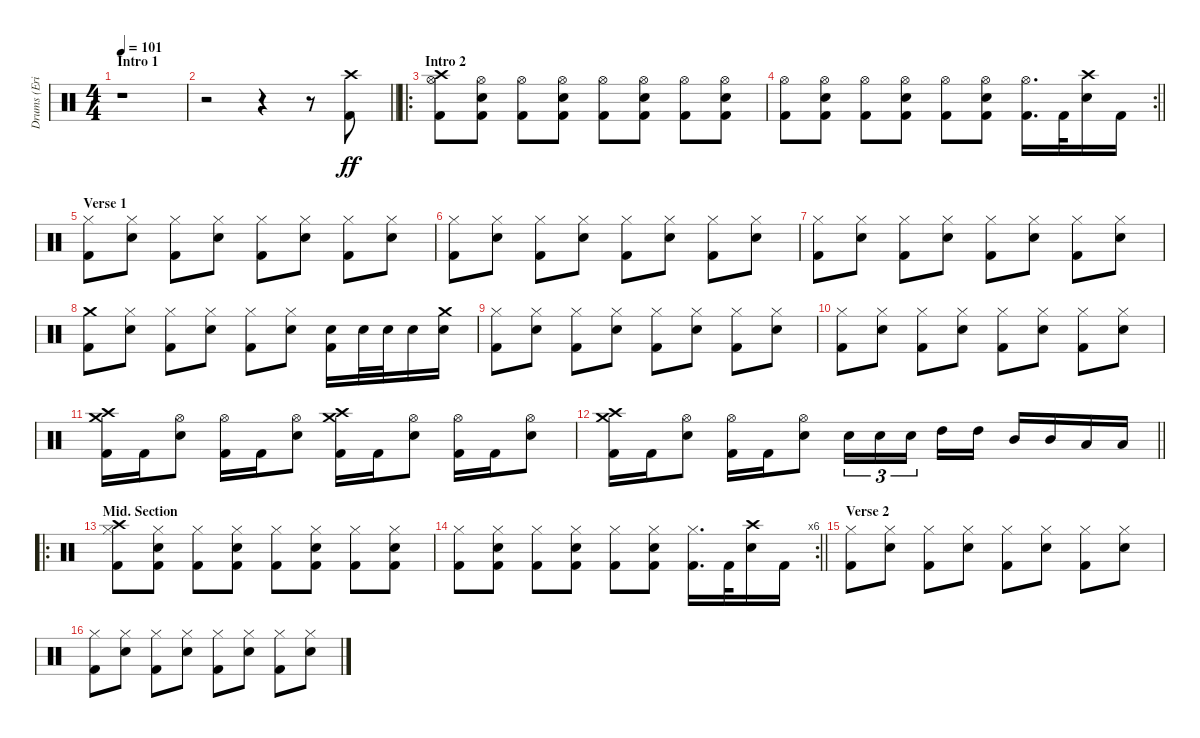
\track ("Drums (Erik Sandin)" "Drums (Eri") {instrument percussion}
\staff {score}
\articulation defaults
\ts (4 4)
\section ("" "Intro 1")
\tempo 101
\clef neutral
\ks c
r.1{dy ff} |
\barLineRight lightlight
r.2 r.4 r.8 ("Crash high (hit)" "Kick (hit) 2").8 |
\ro
\section ("" "Intro 2")
("Hi-Hat (open)" "Crash high (hit)" "Kick (hit) 2").8 ("Hi-Hat (open)" "Electric Snare (hit)" "Kick (hit) 2").8 ("Hi-Hat (open)" "Kick (hit) 2").8 ("Hi-Hat (open)" "Electric Snare (hit)" "Kick (hit) 2").8 ("Hi-Hat (open)" "Kick (hit) 2").8 ("Hi-Hat (open)" "Electric Snare (hit)" "Kick (hit) 2").8 ("Hi-Hat (open)" "Kick (hit) 2").8 ("Hi-Hat (open)" "Electric Snare (hit)" "Kick (hit) 2").8 |
\rc 2
\barLineRight lightlight
("Hi-Hat (open)" "Kick (hit) 2").8 ("Hi-Hat (open)" "Electric Snare (hit)" "Kick (hit) 2").8 ("Hi-Hat (open)" "Kick (hit) 2").8 ("Hi-Hat (open)" "Electric Snare (hit)" "Kick (hit) 2").8 ("Hi-Hat (open)" "Kick (hit) 2").8 ("Hi-Hat (open)" "Electric Snare (hit)" "Kick (hit) 2").8 ("Hi-Hat (open)" "Kick (hit) 2").16{d} "Kick (hit) 2".32 ("Crash high (hit)" "Electric Snare (hit)").16 "Kick (hit) 2".16 |
\section ("" "Verse 1")
("Hi-Hat (closed)" "Kick (hit) 2").8 ("Hi-Hat (closed)" "Electric Snare (hit)").8 ("Hi-Hat (closed)" "Kick (hit) 2").8 ("Hi-Hat (closed)" "Electric Snare (hit)").8 ("Hi-Hat (closed)" "Kick (hit) 2").8 ("Hi-Hat (closed)" "Electric Snare (hit)").8 ("Hi-Hat (closed)" "Kick (hit) 2").8 ("Hi-Hat (closed)" "Electric Snare (hit)").8 |
("Hi-Hat (closed)" "Kick (hit) 2").8 ("Hi-Hat (closed)" "Electric Snare (hit)").8 ("Hi-Hat (closed)" "Kick (hit) 2").8 ("Hi-Hat (closed)" "Electric Snare (hit)").8 ("Hi-Hat (closed)" "Kick (hit) 2").8 ("Hi-Hat (closed)" "Electric Snare (hit)").8 ("Hi-Hat (closed)" "Kick (hit) 2").8 ("Hi-Hat (closed)" "Electric Snare (hit)").8 |
("Hi-Hat (closed)" "Kick (hit) 2").8 ("Hi-Hat (closed)" "Electric Snare (hit)").8 ("Hi-Hat (closed)" "Kick (hit) 2").8 ("Hi-Hat (closed)" "Electric Snare (hit)").8 ("Hi-Hat (closed)" "Kick (hit) 2").8 ("Hi-Hat (closed)" "Electric Snare (hit)").8 ("Hi-Hat (closed)" "Kick (hit) 2").8 ("Hi-Hat (closed)" "Electric Snare (hit)").8 |
("Crash medium (hit)" "Kick (hit) 2").8 ("Hi-Hat (closed)" "Electric Snare (hit)").8 ("Hi-Hat (closed)" "Kick (hit) 2").8 ("Hi-Hat (closed)" "Electric Snare (hit)").8 ("Hi-Hat (closed)" "Kick (hit) 2").8 ("Hi-Hat (closed)" "Electric Snare (hit)").8 ("Electric Snare (hit)" "Kick (hit) 2").16 "Electric Snare (hit)".32 "Electric Snare (hit)".32 "Electric Snare (hit)".16 ("Crash medium (hit)" "Electric Snare (hit)").16 |
("Hi-Hat (closed)" "Kick (hit) 2").8 ("Hi-Hat (closed)" "Electric Snare (hit)").8 ("Hi-Hat (closed)" "Kick (hit) 2").8 ("Hi-Hat (closed)" "Electric Snare (hit)").8 ("Hi-Hat (closed)" "Kick (hit) 2").8 ("Hi-Hat (closed)" "Electric Snare (hit)").8 ("Hi-Hat (closed)" "Kick (hit) 2").8 ("Hi-Hat (closed)" "Electric Snare (hit)").8 |
("Hi-Hat (closed)" "Kick (hit) 2").8 ("Hi-Hat (closed)" "Electric Snare (hit)").8 ("Hi-Hat (closed)" "Kick (hit) 2").8 ("Hi-Hat (closed)" "Electric Snare (hit)").8 ("Hi-Hat (closed)" "Kick (hit) 2").8 ("Hi-Hat (closed)" "Electric Snare (hit)").8 ("Hi-Hat (closed)" "Kick (hit) 2").8 ("Hi-Hat (closed)" "Electric Snare (hit)").8 |
("Crash high (hit)" "Crash medium (hit)" "Kick (hit) 2").16 "Kick (hit) 2".16 ("Hi-Hat (open)" "Electric Snare (hit)").8 ("Hi-Hat (open)" "Kick (hit) 2").16 "Kick (hit) 2".16 ("Hi-Hat (open)" "Electric Snare (hit)").8 ("Crash high (hit)" "Crash medium (hit)" "Kick (hit) 2").16 "Kick (hit) 2".16 ("Hi-Hat (open)" "Electric Snare (hit)").8 ("Hi-Hat (open)" "Kick (hit) 2").16 "Kick (hit) 2".16 ("Hi-Hat (open)" "Electric Snare (hit)").8 |
\barLineRight lightlight
("Crash high (hit)" "Crash medium (hit)" "Kick (hit) 2").16 "Kick (hit) 2".16 ("Hi-Hat (open)" "Electric Snare (hit)").8 ("Hi-Hat (open)" "Kick (hit) 2").16 "Kick (hit) 2".16 ("Hi-Hat (open)" "Electric Snare (hit)").8 "Electric Snare (hit)".16{tu (3 2)} "Electric Snare (hit)".16{tu (3 2)} "Electric Snare (hit)".16{tu (3 2) beam splitsecondary} "High Tom (hit)".16 "High Tom (hit)".16 "Mid Tom (hit)".16 "Mid Tom (hit)".16 "Low Tom (hit)".16 "Low Tom (hit)".16 |
\ro
\section ("" "Mid. Section")
("Hi-Hat (closed)" "Crash high (hit)" "Kick (hit) 2").8 ("Hi-Hat (closed)" "Electric Snare (hit)" "Kick (hit) 2").8 ("Hi-Hat (closed)" "Kick (hit) 2").8 ("Hi-Hat (closed)" "Electric Snare (hit)" "Kick (hit) 2").8 ("Hi-Hat (closed)" "Kick (hit) 2").8 ("Hi-Hat (closed)" "Electric Snare (hit)" "Kick (hit) 2").8 ("Hi-Hat (closed)" "Kick (hit) 2").8 ("Hi-Hat (closed)" "Electric Snare (hit)" "Kick (hit) 2").8 |
\rc 6
\barLineRight lightlight
("Hi-Hat (closed)" "Kick (hit) 2").8 ("Hi-Hat (closed)" "Electric Snare (hit)" "Kick (hit) 2").8 ("Hi-Hat (closed)" "Kick (hit) 2").8 ("Hi-Hat (closed)" "Electric Snare (hit)" "Kick (hit) 2").8 ("Hi-Hat (closed)" "Kick (hit) 2").8 ("Hi-Hat (closed)" "Electric Snare (hit)" "Kick (hit) 2").8 ("Hi-Hat (closed)" "Kick (hit) 2").16{d} "Kick (hit) 2".32 ("Crash high (hit)" "Electric Snare (hit)").16 "Kick (hit) 2".16 |
\section ("" "Verse 2")
("Hi-Hat (closed)" "Kick (hit) 2").8 ("Hi-Hat (closed)" "Electric Snare (hit)").8 ("Hi-Hat (closed)" "Kick (hit) 2").8 ("Hi-Hat (closed)" "Electric Snare (hit)").8 ("Hi-Hat (closed)" "Kick (hit) 2").8 ("Hi-Hat (closed)" "Electric Snare (hit)").8 ("Hi-Hat (closed)" "Kick (hit) 2").8 ("Hi-Hat (closed)" "Electric Snare (hit)").8 |
("Hi-Hat (closed)" "Kick (hit) 2").8 ("Hi-Hat (closed)" "Electric Snare (hit)").8 ("Hi-Hat (closed)" "Kick (hit) 2").8 ("Hi-Hat (closed)" "Electric Snare (hit)").8 ("Hi-Hat (closed)" "Kick (hit) 2").8 ("Hi-Hat (closed)" "Electric Snare (hit)").8 ("Hi-Hat (closed)" "Kick (hit) 2").8 ("Hi-Hat (closed)" "Electric Snare (hit)").8
